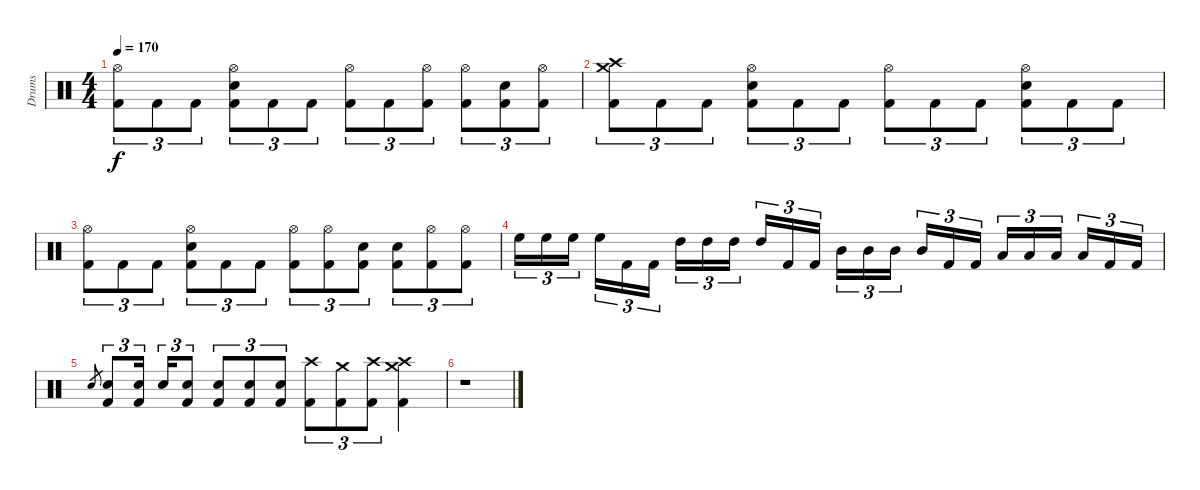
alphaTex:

\track ("Drums" "Drums") {instrument percussion}
\staff {score}
\articulation defaults
\ts (4 4)
\tempo 170
\clef neutral
\ks c
("Hi-Hat (open)" "Kick (hit) 2").8{tu (3 2) dy f} "Kick (hit) 2".8{tu (3 2)} "Kick (hit) 2".8{tu (3 2)} ("Hi-Hat (open)" "Electric Snare (hit)" "Kick (hit) 2").8{tu (3 2)} "Kick (hit) 2".8{tu (3 2)} "Kick (hit) 2".8{tu (3 2)} ("Hi-Hat (open)" "Kick (hit) 2").8{tu (3 2)} "Kick (hit) 2".8{tu (3 2)} ("Hi-Hat (open)" "Kick (hit) 2").8{tu (3 2)} ("Hi-Hat (open)" "Kick (hit) 2").8{tu (3 2)} ("Electric Snare (hit)" "Kick (hit) 2").8{tu (3 2)} ("Hi-Hat (open)" "Kick (hit) 2").8{tu (3 2)} |
("Crash medium (hit)" "Crash high (hit)" "Kick (hit) 2").8{tu (3 2)} "Kick (hit) 2".8{tu (3 2)} "Kick (hit) 2".8{tu (3 2)} ("Hi-Hat (open)" "Electric Snare (hit)" "Kick (hit) 2").8{tu (3 2)} "Kick (hit) 2".8{tu (3 2)} "Kick (hit) 2".8{tu (3 2)} ("Hi-Hat (open)" "Kick (hit) 2").8{tu (3 2)} "Kick (hit) 2".8{tu (3 2)} "Kick (hit) 2".8{tu (3 2)} ("Hi-Hat (open)" "Electric Snare (hit)" "Kick (hit) 2").8{tu (3 2)} "Kick (hit) 2".8{tu (3 2)} "Kick (hit) 2".8{tu (3 2)} |
("Hi-Hat (open)" "Kick (hit) 2").8{tu (3 2)} "Kick (hit) 2".8{tu (3 2)} "Kick (hit) 2".8{tu (3 2)} ("Hi-Hat (open)" "Electric Snare (hit)" "Kick (hit) 2").8{tu (3 2)} "Kick (hit) 2".8{tu (3 2)} "Kick (hit) 2".8{tu (3 2)} ("Hi-Hat (open)" "Kick (hit) 2").8{tu (3 2)} ("Hi-Hat (open)" "Kick (hit) 2").8{tu (3 2)} ("Electric Snare (hit)" "Kick (hit) 2").8{tu (3 2)} ("Electric Snare (hit)" "Kick (hit) 2").8{tu (3 2)} ("Hi-Hat (open)" "Kick (hit) 2").8{tu (3 2)} ("Hi-Hat (open)" "Kick (hit) 2").8{tu (3 2)} |
"High Floor Tom (hit)".16{tu (3 2)} "High Floor Tom (hit)".16{tu (3 2)} "High Floor Tom (hit)".16{tu (3 2) beam splitsecondary} "High Floor Tom (hit)".16{tu (3 2)} "Kick (hit) 2".16{tu (3 2)} "Kick (hit) 2".16{tu (3 2)} "High Tom (hit)".16{tu (3 2)} "High Tom (hit)".16{tu (3 2)} "High Tom (hit)".16{tu (3 2) beam splitsecondary} "High Tom (hit)".16{tu (3 2)} "Kick (hit) 2".16{tu (3 2)} "Kick (hit) 2".16{tu (3 2)} "Mid Tom (hit)".16{tu (3 2)} "Mid Tom (hit)".16{tu (3 2)} "Mid Tom (hit)".16{tu (3 2) beam splitsecondary} "Mid Tom (hit)".16{tu (3 2)} "Kick (hit) 2".16{tu (3 2)} "Kick (hit) 2".16{tu (3 2)} "Low Tom (hit)".16{tu (3 2)} "Low Tom (hit)".16{tu (3 2)} "Low Tom (hit)".16{tu (3 2) beam splitsecondary} "Low Tom (hit)".16{tu (3 2)} "Kick (hit) 2".16{tu (3 2)} "Kick (hit) 2".16{tu (3 2)} |
"Electric Snare (hit)".8{gr} ("Electric Snare (hit)" "Kick (hit) 2").8{tu (3 2)} ("Electric Snare (hit)" "Kick (hit) 2").16{tu (3 2) beam splitsecondary} "Electric Snare (hit)".16{tu (3 2)} ("Electric Snare (hit)" "Kick (hit) 2").8{tu (3 2)} ("Electric Snare (hit)" "Kick (hit) 2").8{tu (3 2)} ("Electric Snare (hit)" "Kick (hit) 2").8{tu (3 2)} ("Electric Snare (hit)" "Kick (hit) 2").8{tu (3 2)} ("Crash high (hit)" "Kick (hit) 2").8{tu (3 2)} ("Crash medium (hit)" "Kick (hit) 2").8{tu (3 2)} ("Crash high (hit)" "Kick (hit) 2").8{tu (3 2)} ("Crash medium (hit)" "Crash high (hit)" "Kick (hit) 2").4 |
r.1
